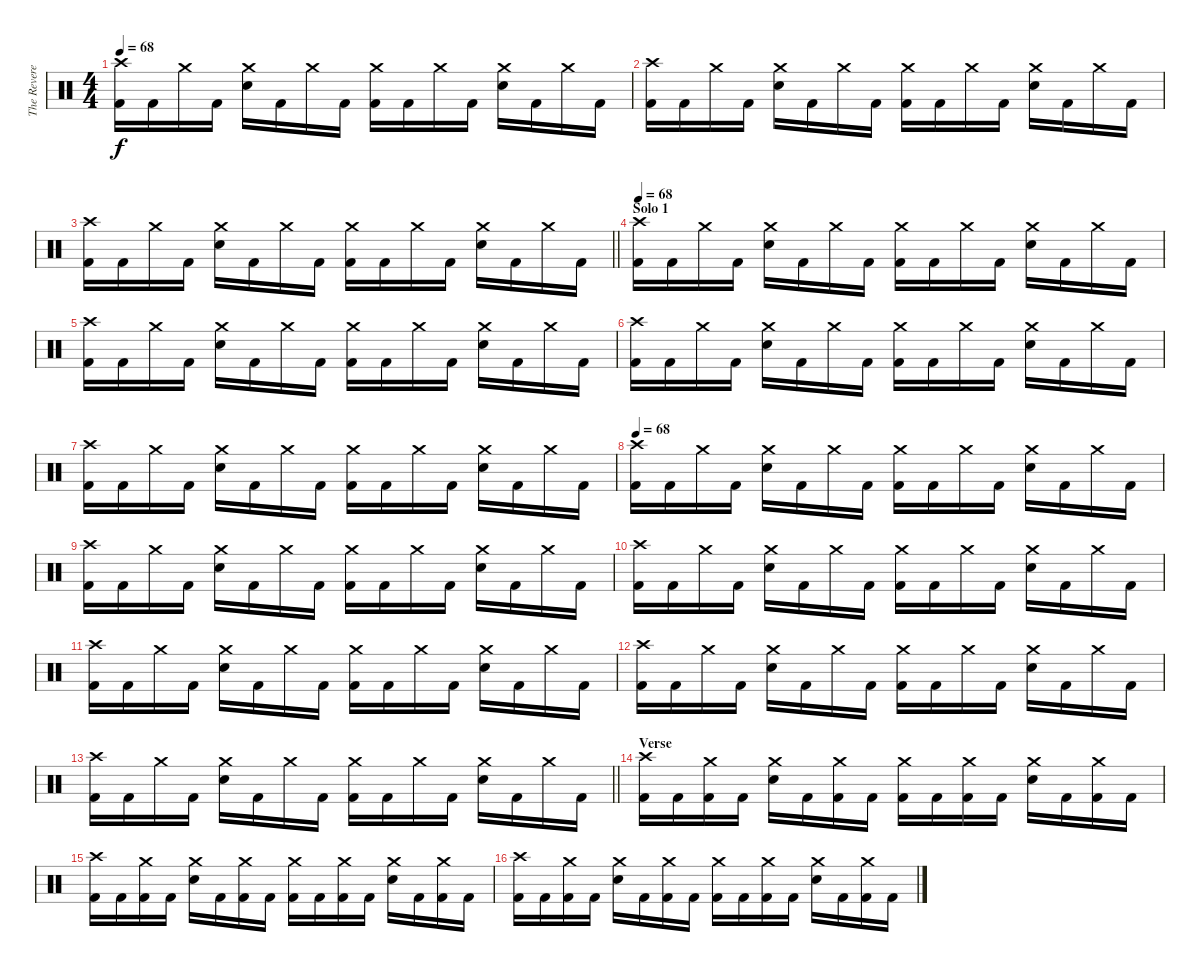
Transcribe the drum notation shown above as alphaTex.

\track ("The Reverend" "The Revere") {instrument percussion}
\staff {score}
\articulation defaults
\ts (4 4)
\tempo 68
\clef neutral
\ks c
("Crash high (hit)" "Kick (hit) 2").16{dy f} "Kick (hit) 2".16 "Crash medium (hit)".16 "Kick (hit) 2".16 ("Crash medium (hit)" "Electric Snare (hit)").16 "Kick (hit) 2".16 "Crash medium (hit)".16 "Kick (hit) 2".16 ("Crash medium (hit)" "Kick (hit) 2").16 "Kick (hit) 2".16 "Crash medium (hit)".16 "Kick (hit) 2".16 ("Crash medium (hit)" "Electric Snare (hit)").16 "Kick (hit) 2".16 "Crash medium (hit)".16 "Kick (hit) 2".16 |
("Crash high (hit)" "Kick (hit) 2").16 "Kick (hit) 2".16 "Crash medium (hit)".16 "Kick (hit) 2".16 ("Crash medium (hit)" "Electric Snare (hit)").16 "Kick (hit) 2".16 "Crash medium (hit)".16 "Kick (hit) 2".16 ("Crash medium (hit)" "Kick (hit) 2").16 "Kick (hit) 2".16 "Crash medium (hit)".16 "Kick (hit) 2".16 ("Crash medium (hit)" "Electric Snare (hit)").16 "Kick (hit) 2".16 "Crash medium (hit)".16 "Kick (hit) 2".16 |
\barLineRight lightlight
("Crash high (hit)" "Kick (hit) 2").16 "Kick (hit) 2".16 "Crash medium (hit)".16 "Kick (hit) 2".16 ("Crash medium (hit)" "Electric Snare (hit)").16 "Kick (hit) 2".16 "Crash medium (hit)".16 "Kick (hit) 2".16 ("Crash medium (hit)" "Kick (hit) 2").16 "Kick (hit) 2".16 "Crash medium (hit)".16 "Kick (hit) 2".16 ("Crash medium (hit)" "Electric Snare (hit)").16 "Kick (hit) 2".16 "Crash medium (hit)".16 "Kick (hit) 2".16 |
\section ("" "Solo 1")
\tempo 68
("Crash high (hit)" "Kick (hit) 2").16 "Kick (hit) 2".16 "Crash medium (hit)".16 "Kick (hit) 2".16 ("Crash medium (hit)" "Electric Snare (hit)").16 "Kick (hit) 2".16 "Crash medium (hit)".16 "Kick (hit) 2".16 ("Crash medium (hit)" "Kick (hit) 2").16 "Kick (hit) 2".16 "Crash medium (hit)".16 "Kick (hit) 2".16 ("Crash medium (hit)" "Electric Snare (hit)").16 "Kick (hit) 2".16 "Crash medium (hit)".16 "Kick (hit) 2".16 |
("Crash high (hit)" "Kick (hit) 2").16 "Kick (hit) 2".16 "Crash medium (hit)".16 "Kick (hit) 2".16 ("Crash medium (hit)" "Electric Snare (hit)").16 "Kick (hit) 2".16 "Crash medium (hit)".16 "Kick (hit) 2".16 ("Crash medium (hit)" "Kick (hit) 2").16 "Kick (hit) 2".16 "Crash medium (hit)".16 "Kick (hit) 2".16 ("Crash medium (hit)" "Electric Snare (hit)").16 "Kick (hit) 2".16 "Crash medium (hit)".16 "Kick (hit) 2".16 |
("Crash high (hit)" "Kick (hit) 2").16 "Kick (hit) 2".16 "Crash medium (hit)".16 "Kick (hit) 2".16 ("Crash medium (hit)" "Electric Snare (hit)").16 "Kick (hit) 2".16 "Crash medium (hit)".16 "Kick (hit) 2".16 ("Crash medium (hit)" "Kick (hit) 2").16 "Kick (hit) 2".16 "Crash medium (hit)".16 "Kick (hit) 2".16 ("Crash medium (hit)" "Electric Snare (hit)").16 "Kick (hit) 2".16 "Crash medium (hit)".16 "Kick (hit) 2".16 |
("Crash high (hit)" "Kick (hit) 2").16 "Kick (hit) 2".16 "Crash medium (hit)".16 "Kick (hit) 2".16 ("Crash medium (hit)" "Electric Snare (hit)").16 "Kick (hit) 2".16 "Crash medium (hit)".16 "Kick (hit) 2".16 ("Crash medium (hit)" "Kick (hit) 2").16 "Kick (hit) 2".16 "Crash medium (hit)".16 "Kick (hit) 2".16 ("Crash medium (hit)" "Electric Snare (hit)").16 "Kick (hit) 2".16 "Crash medium (hit)".16 "Kick (hit) 2".16 |
\tempo 68
("Crash high (hit)" "Kick (hit) 2").16 "Kick (hit) 2".16 "Crash medium (hit)".16 "Kick (hit) 2".16 ("Crash medium (hit)" "Electric Snare (hit)").16 "Kick (hit) 2".16 "Crash medium (hit)".16 "Kick (hit) 2".16 ("Crash medium (hit)" "Kick (hit) 2").16 "Kick (hit) 2".16 "Crash medium (hit)".16 "Kick (hit) 2".16 ("Crash medium (hit)" "Electric Snare (hit)").16 "Kick (hit) 2".16 "Crash medium (hit)".16 "Kick (hit) 2".16 |
("Crash high (hit)" "Kick (hit) 2").16 "Kick (hit) 2".16 "Crash medium (hit)".16 "Kick (hit) 2".16 ("Crash medium (hit)" "Electric Snare (hit)").16 "Kick (hit) 2".16 "Crash medium (hit)".16 "Kick (hit) 2".16 ("Crash medium (hit)" "Kick (hit) 2").16 "Kick (hit) 2".16 "Crash medium (hit)".16 "Kick (hit) 2".16 ("Crash medium (hit)" "Electric Snare (hit)").16 "Kick (hit) 2".16 "Crash medium (hit)".16 "Kick (hit) 2".16 |
("Crash high (hit)" "Kick (hit) 2").16 "Kick (hit) 2".16 "Crash medium (hit)".16 "Kick (hit) 2".16 ("Crash medium (hit)" "Electric Snare (hit)").16 "Kick (hit) 2".16 "Crash medium (hit)".16 "Kick (hit) 2".16 ("Crash medium (hit)" "Kick (hit) 2").16 "Kick (hit) 2".16 "Crash medium (hit)".16 "Kick (hit) 2".16 ("Crash medium (hit)" "Electric Snare (hit)").16 "Kick (hit) 2".16 "Crash medium (hit)".16 "Kick (hit) 2".16 |
("Crash high (hit)" "Kick (hit) 2").16 "Kick (hit) 2".16 "Crash medium (hit)".16 "Kick (hit) 2".16 ("Crash medium (hit)" "Electric Snare (hit)").16 "Kick (hit) 2".16 "Crash medium (hit)".16 "Kick (hit) 2".16 ("Crash medium (hit)" "Kick (hit) 2").16 "Kick (hit) 2".16 "Crash medium (hit)".16 "Kick (hit) 2".16 ("Crash medium (hit)" "Electric Snare (hit)").16 "Kick (hit) 2".16 "Crash medium (hit)".16 "Kick (hit) 2".16 |
("Crash high (hit)" "Kick (hit) 2").16 "Kick (hit) 2".16 "Crash medium (hit)".16 "Kick (hit) 2".16 ("Crash medium (hit)" "Electric Snare (hit)").16 "Kick (hit) 2".16 "Crash medium (hit)".16 "Kick (hit) 2".16 ("Crash medium (hit)" "Kick (hit) 2").16 "Kick (hit) 2".16 "Crash medium (hit)".16 "Kick (hit) 2".16 ("Crash medium (hit)" "Electric Snare (hit)").16 "Kick (hit) 2".16 "Crash medium (hit)".16 "Kick (hit) 2".16 |
\barLineRight lightlight
("Crash high (hit)" "Kick (hit) 2").16 "Kick (hit) 2".16 "Crash medium (hit)".16 "Kick (hit) 2".16 ("Crash medium (hit)" "Electric Snare (hit)").16 "Kick (hit) 2".16 "Crash medium (hit)".16 "Kick (hit) 2".16 ("Crash medium (hit)" "Kick (hit) 2").16 "Kick (hit) 2".16 "Crash medium (hit)".16 "Kick (hit) 2".16 ("Crash medium (hit)" "Electric Snare (hit)").16 "Kick (hit) 2".16 "Crash medium (hit)".16 "Kick (hit) 2".16 |
\section ("" "Verse")
("Crash high (hit)" "Kick (hit) 2").16 "Kick (hit) 2".16 ("Crash medium (hit)" "Kick (hit) 2").16 "Kick (hit) 2".16 ("Crash medium (hit)" "Electric Snare (hit)").16 "Kick (hit) 2".16 ("Crash medium (hit)" "Kick (hit) 2").16 "Kick (hit) 2".16 ("Crash medium (hit)" "Kick (hit) 2").16 "Kick (hit) 2".16 ("Crash medium (hit)" "Kick (hit) 2").16 "Kick (hit) 2".16 ("Crash medium (hit)" "Electric Snare (hit)").16 "Kick (hit) 2".16 ("Crash medium (hit)" "Kick (hit) 2").16 "Kick (hit) 2".16 |
("Crash high (hit)" "Kick (hit) 2").16 "Kick (hit) 2".16 ("Crash medium (hit)" "Kick (hit) 2").16 "Kick (hit) 2".16 ("Crash medium (hit)" "Electric Snare (hit)").16 "Kick (hit) 2".16 ("Crash medium (hit)" "Kick (hit) 2").16 "Kick (hit) 2".16 ("Crash medium (hit)" "Kick (hit) 2").16 "Kick (hit) 2".16 ("Crash medium (hit)" "Kick (hit) 2").16 "Kick (hit) 2".16 ("Crash medium (hit)" "Electric Snare (hit)").16 "Kick (hit) 2".16 ("Crash medium (hit)" "Kick (hit) 2").16 "Kick (hit) 2".16 |
("Crash high (hit)" "Kick (hit) 2").16 "Kick (hit) 2".16 ("Crash medium (hit)" "Kick (hit) 2").16 "Kick (hit) 2".16 ("Crash medium (hit)" "Electric Snare (hit)").16 "Kick (hit) 2".16 ("Crash medium (hit)" "Kick (hit) 2").16 "Kick (hit) 2".16 ("Crash medium (hit)" "Kick (hit) 2").16 "Kick (hit) 2".16 ("Crash medium (hit)" "Kick (hit) 2").16 "Kick (hit) 2".16 ("Crash medium (hit)" "Electric Snare (hit)").16 "Kick (hit) 2".16 ("Crash medium (hit)" "Kick (hit) 2").16 "Kick (hit) 2".16
